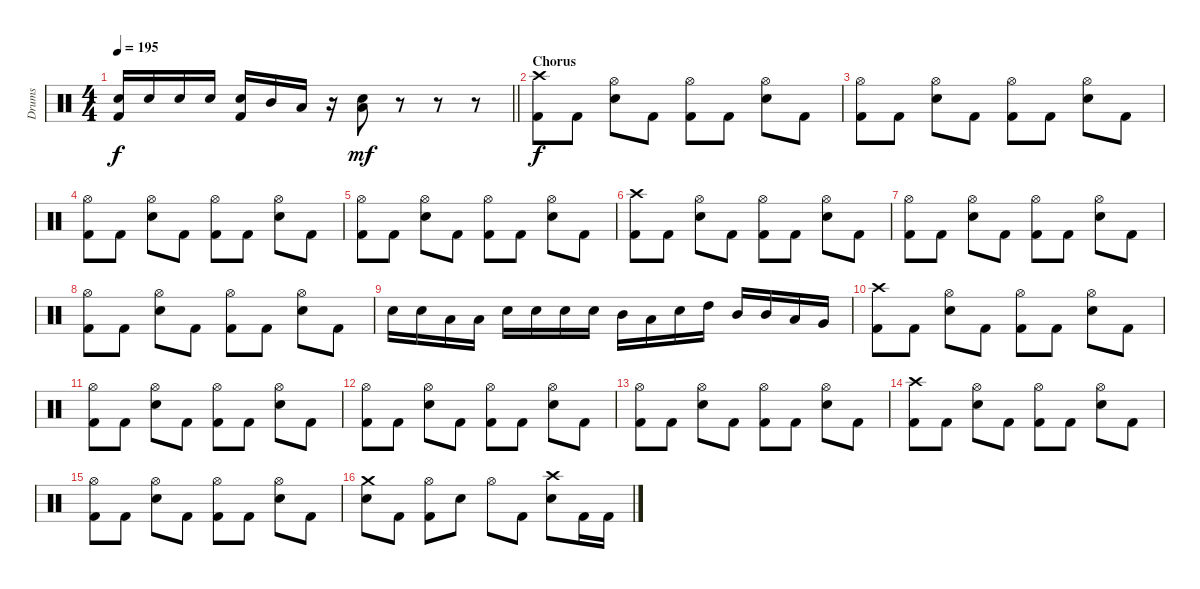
\track ("Drums" "Drums") {instrument percussion}
\staff {score}
\articulation defaults
\ts (4 4)
\tempo 195
\clef neutral
\barLineRight lightlight
\ks c
("Electric Snare (hit)" "Kick (hit) 2").16{dy f} "Electric Snare (hit)".16 "Electric Snare (hit)".16 "Electric Snare (hit)".16 ("Electric Snare (hit)" "Kick (hit) 2").16 "Mid Tom (hit)".16 "Low Tom (hit)".16 r.16 ("Low Tom (hit)" "Electric Snare (hit)").8{dy mf} r.8 r.8 r.8 |
\section ("" "Chorus")
("Crash high (hit)" "Kick (hit) 2").8{dy f} "Kick (hit) 2".8 ("Hi-Hat (open)" "Electric Snare (hit)").8 "Kick (hit) 2".8 ("Hi-Hat (open)" "Kick (hit) 2").8 "Kick (hit) 2".8 ("Hi-Hat (open)" "Electric Snare (hit)").8 "Kick (hit) 2".8 |
("Hi-Hat (open)" "Kick (hit) 2").8 "Kick (hit) 2".8 ("Hi-Hat (open)" "Electric Snare (hit)").8 "Kick (hit) 2".8 ("Hi-Hat (open)" "Kick (hit) 2").8 "Kick (hit) 2".8 ("Hi-Hat (open)" "Electric Snare (hit)").8 "Kick (hit) 2".8 |
("Hi-Hat (open)" "Kick (hit) 2").8 "Kick (hit) 2".8 ("Hi-Hat (open)" "Electric Snare (hit)").8 "Kick (hit) 2".8 ("Hi-Hat (open)" "Kick (hit) 2").8 "Kick (hit) 2".8 ("Hi-Hat (open)" "Electric Snare (hit)").8 "Kick (hit) 2".8 |
("Hi-Hat (open)" "Kick (hit) 2").8 "Kick (hit) 2".8 ("Hi-Hat (open)" "Electric Snare (hit)").8 "Kick (hit) 2".8 ("Hi-Hat (open)" "Kick (hit) 2").8 "Kick (hit) 2".8 ("Hi-Hat (open)" "Electric Snare (hit)").8 "Kick (hit) 2".8 |
("Crash high (hit)" "Kick (hit) 2").8 "Kick (hit) 2".8 ("Hi-Hat (open)" "Electric Snare (hit)").8 "Kick (hit) 2".8 ("Hi-Hat (open)" "Kick (hit) 2").8 "Kick (hit) 2".8 ("Hi-Hat (open)" "Electric Snare (hit)").8 "Kick (hit) 2".8 |
("Hi-Hat (open)" "Kick (hit) 2").8 "Kick (hit) 2".8 ("Hi-Hat (open)" "Electric Snare (hit)").8 "Kick (hit) 2".8 ("Hi-Hat (open)" "Kick (hit) 2").8 "Kick (hit) 2".8 ("Hi-Hat (open)" "Electric Snare (hit)").8 "Kick (hit) 2".8 |
("Hi-Hat (open)" "Kick (hit) 2").8 "Kick (hit) 2".8 ("Hi-Hat (open)" "Electric Snare (hit)").8 "Kick (hit) 2".8 ("Hi-Hat (open)" "Kick (hit) 2").8 "Kick (hit) 2".8 ("Hi-Hat (open)" "Electric Snare (hit)").8 "Kick (hit) 2".8 |
"Electric Snare (hit)".16 "Electric Snare (hit)".16 "Low Tom (hit)".16 "Low Tom (hit)".16 "Electric Snare (hit)".16 "Electric Snare (hit)".16 "Electric Snare (hit)".16 "Electric Snare (hit)".16 "Mid Tom (hit)".16 "Low Tom (hit)".16 "Electric Snare (hit)".16 "High Tom (hit)".16 "Mid Tom (hit)".16 "Mid Tom (hit)".16 "Low Tom (hit)".16 "Very Low Tom (hit)".16 |
("Crash high (hit)" "Kick (hit) 2").8 "Kick (hit) 2".8 ("Hi-Hat (open)" "Electric Snare (hit)").8 "Kick (hit) 2".8 ("Hi-Hat (open)" "Kick (hit) 2").8 "Kick (hit) 2".8 ("Hi-Hat (open)" "Electric Snare (hit)").8 "Kick (hit) 2".8 |
("Hi-Hat (open)" "Kick (hit) 2").8 "Kick (hit) 2".8 ("Hi-Hat (open)" "Electric Snare (hit)").8 "Kick (hit) 2".8 ("Hi-Hat (open)" "Kick (hit) 2").8 "Kick (hit) 2".8 ("Hi-Hat (open)" "Electric Snare (hit)").8 "Kick (hit) 2".8 |
("Hi-Hat (open)" "Kick (hit) 2").8 "Kick (hit) 2".8 ("Hi-Hat (open)" "Electric Snare (hit)").8 "Kick (hit) 2".8 ("Hi-Hat (open)" "Kick (hit) 2").8 "Kick (hit) 2".8 ("Hi-Hat (open)" "Electric Snare (hit)").8 "Kick (hit) 2".8 |
("Hi-Hat (open)" "Kick (hit) 2").8 "Kick (hit) 2".8 ("Hi-Hat (open)" "Electric Snare (hit)").8 "Kick (hit) 2".8 ("Hi-Hat (open)" "Kick (hit) 2").8 "Kick (hit) 2".8 ("Hi-Hat (open)" "Electric Snare (hit)").8 "Kick (hit) 2".8 |
("Crash high (hit)" "Kick (hit) 2").8 "Kick (hit) 2".8 ("Hi-Hat (open)" "Electric Snare (hit)").8 "Kick (hit) 2".8 ("Hi-Hat (open)" "Kick (hit) 2").8 "Kick (hit) 2".8 ("Hi-Hat (open)" "Electric Snare (hit)").8 "Kick (hit) 2".8 |
("Hi-Hat (open)" "Kick (hit) 2").8 "Kick (hit) 2".8 ("Hi-Hat (open)" "Electric Snare (hit)").8 "Kick (hit) 2".8 ("Hi-Hat (open)" "Kick (hit) 2").8 "Kick (hit) 2".8 ("Hi-Hat (open)" "Electric Snare (hit)").8 "Kick (hit) 2".8 |
("Crash medium (hit)" "Electric Snare (hit)").8 "Kick (hit) 2".8 ("Hi-Hat (open)" "Kick (hit) 2").8 "Electric Snare (hit)".8 "Hi-Hat (open)".8 "Kick (hit) 2".8 ("Crash high (hit)" "Electric Snare (hit)").8 "Kick (hit) 2".16 "Kick (hit) 2".16
